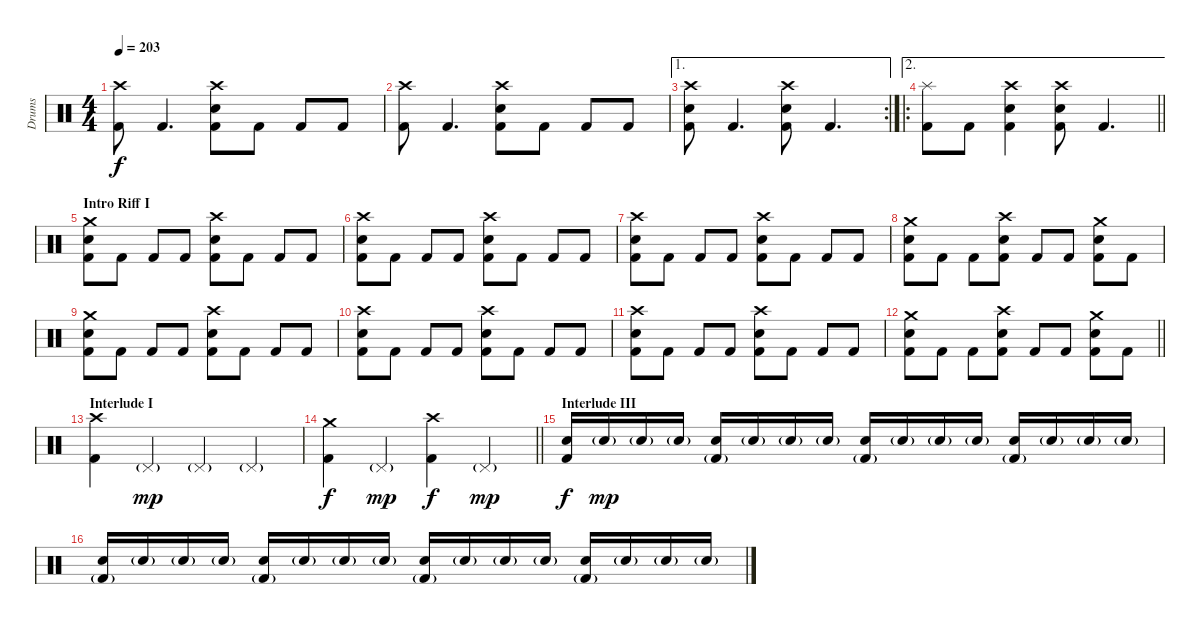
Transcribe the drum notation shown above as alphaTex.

\track ("Drums" "Drums") {instrument percussion}
\staff {score}
\articulation defaults
\ts (4 4)
\tempo 203
\clef neutral
\ks c
("Crash high (hit)" "Kick (hit) 2").8{dy f} "Kick (hit) 2".4{d} ("Crash high (hit)" "Electric Snare (hit)" "Kick (hit) 2").8 "Kick (hit) 2".8 "Kick (hit) 2".8 "Kick (hit) 2".8 |
("Crash high (hit)" "Kick (hit) 2").8 "Kick (hit) 2".4{d} ("Crash high (hit)" "Electric Snare (hit)" "Kick (hit) 2").8 "Kick (hit) 2".8 "Kick (hit) 2".8 "Kick (hit) 2".8 |
\ae 1
\rc 2
("Crash high (hit)" "Electric Snare (hit)" "Kick (hit) 2").8 "Kick (hit) 2".4{d} ("Crash high (hit)" "Electric Snare (hit)" "Kick (hit) 2").8 "Kick (hit) 2".4{d} |
\ae 2
\ro
\barLineRight lightlight
("Splash (hit)" "Kick (hit) 2").8 "Kick (hit) 2".8 ("Crash high (hit)" "Electric Snare (hit)" "Kick (hit) 2").4 ("Crash high (hit)" "Electric Snare (hit)" "Kick (hit) 2").8 "Kick (hit) 2".4{d} |
\section ("" "Intro Riff I")
("Crash medium (hit)" "Electric Snare (hit)" "Kick (hit) 2").8 "Kick (hit) 2".8 "Kick (hit) 2".8 "Kick (hit) 2".8 ("Crash high (hit)" "Electric Snare (hit)" "Kick (hit) 2").8 "Kick (hit) 2".8 "Kick (hit) 2".8 "Kick (hit) 2".8 |
("Crash high (hit)" "Electric Snare (hit)" "Kick (hit) 2").8 "Kick (hit) 2".8 "Kick (hit) 2".8 "Kick (hit) 2".8 ("Crash high (hit)" "Electric Snare (hit)" "Kick (hit) 2").8 "Kick (hit) 2".8 "Kick (hit) 2".8 "Kick (hit) 2".8 |
("Crash high (hit)" "Electric Snare (hit)" "Kick (hit) 2").8 "Kick (hit) 2".8 "Kick (hit) 2".8 "Kick (hit) 2".8 ("Crash high (hit)" "Electric Snare (hit)" "Kick (hit) 2").8 "Kick (hit) 2".8 "Kick (hit) 2".8 "Kick (hit) 2".8 |
("Crash medium (hit)" "Electric Snare (hit)" "Kick (hit) 2").8 "Kick (hit) 2".8 "Kick (hit) 2".8 ("Crash high (hit)" "Electric Snare (hit)" "Kick (hit) 2").8 "Kick (hit) 2".8 "Kick (hit) 2".8 ("Crash medium (hit)" "Electric Snare (hit)" "Kick (hit) 2").8 "Kick (hit) 2".8 |
("Crash medium (hit)" "Electric Snare (hit)" "Kick (hit) 2").8 "Kick (hit) 2".8 "Kick (hit) 2".8 "Kick (hit) 2".8 ("Crash high (hit)" "Electric Snare (hit)" "Kick (hit) 2").8 "Kick (hit) 2".8 "Kick (hit) 2".8 "Kick (hit) 2".8 |
("Crash high (hit)" "Electric Snare (hit)" "Kick (hit) 2").8 "Kick (hit) 2".8 "Kick (hit) 2".8 "Kick (hit) 2".8 ("Crash high (hit)" "Electric Snare (hit)" "Kick (hit) 2").8 "Kick (hit) 2".8 "Kick (hit) 2".8 "Kick (hit) 2".8 |
("Crash high (hit)" "Electric Snare (hit)" "Kick (hit) 2").8 "Kick (hit) 2".8 "Kick (hit) 2".8 "Kick (hit) 2".8 ("Crash high (hit)" "Electric Snare (hit)" "Kick (hit) 2").8 "Kick (hit) 2".8 "Kick (hit) 2".8 "Kick (hit) 2".8 |
\barLineRight lightlight
("Crash medium (hit)" "Electric Snare (hit)" "Kick (hit) 2").8 "Kick (hit) 2".8 "Kick (hit) 2".8 ("Crash high (hit)" "Electric Snare (hit)" "Kick (hit) 2").8 "Kick (hit) 2".8 "Kick (hit) 2".8 ("Crash medium (hit)" "Electric Snare (hit)" "Kick (hit) 2").8 "Kick (hit) 2".8 |
\section ("" "Interlude I")
("Crash high (hit)" "Kick (hit) 2").4 "Pedal Hi-Hat (hit)"{g}.4{dy mp} "Pedal Hi-Hat (hit)"{g}.4 "Pedal Hi-Hat (hit)"{g}.4 |
\barLineRight lightlight
("Crash medium (hit)" "Kick (hit) 2").4{dy f} "Pedal Hi-Hat (hit)"{g}.4{dy mp} ("Crash high (hit)" "Kick (hit) 2").4{dy f} "Pedal Hi-Hat (hit)"{g}.4{dy mp} |
\section ("" "Interlude III")
("Electric Snare (hit)" "Kick (hit) 2").16{dy f} "Electric Snare (hit)"{g}.16{dy mp volume 12} "Electric Snare (hit)"{g}.16 "Electric Snare (hit)"{g}.16 ("Electric Snare (hit)" "Kick (hit) 2"{g}).16 "Electric Snare (hit)"{g}.16 "Electric Snare (hit)"{g}.16 "Electric Snare (hit)"{g}.16 ("Electric Snare (hit)" "Kick (hit) 2"{g}).16 "Electric Snare (hit)"{g}.16 "Electric Snare (hit)"{g}.16 "Electric Snare (hit)"{g}.16 ("Electric Snare (hit)" "Kick (hit) 2"{g}).16 "Electric Snare (hit)"{g}.16 "Electric Snare (hit)"{g}.16 "Electric Snare (hit)"{g}.16 |
("Electric Snare (hit)" "Kick (hit) 2"{g}).16 "Electric Snare (hit)"{g}.16 "Electric Snare (hit)"{g}.16 "Electric Snare (hit)"{g}.16 ("Electric Snare (hit)" "Kick (hit) 2"{g}).16 "Electric Snare (hit)"{g}.16 "Electric Snare (hit)"{g}.16 "Electric Snare (hit)"{g}.16 ("Electric Snare (hit)" "Kick (hit) 2"{g}).16 "Electric Snare (hit)"{g}.16 "Electric Snare (hit)"{g}.16 "Electric Snare (hit)"{g}.16 ("Electric Snare (hit)" "Kick (hit) 2"{g}).16 "Electric Snare (hit)"{g}.16 "Electric Snare (hit)"{g}.16 "Electric Snare (hit)"{g}.16
